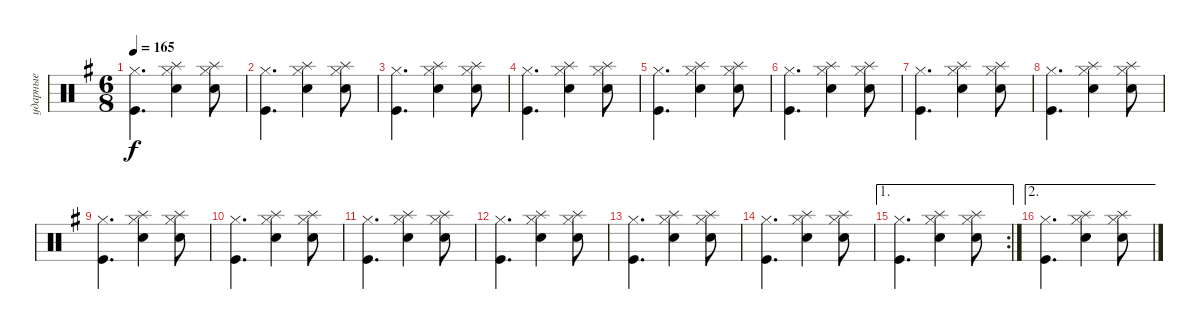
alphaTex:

\track ("ударные" "ударные") {instrument percussion}
\staff {score}
\articulation defaults
\ts (6 8)
\tempo 165
\clef neutral
\ks eminor
("Kick (hit)" "Hi-Hat (closed)").4{d dy f} ("Snare (hit) 2" "Hi-Hat (closed)" "Splash (hit)").4 ("Snare (hit) 2" "Hi-Hat (closed)" "Splash (hit)").8 |
("Kick (hit)" "Hi-Hat (closed)").4{d} ("Snare (hit) 2" "Hi-Hat (closed)" "Splash (hit)").4 ("Snare (hit) 2" "Hi-Hat (closed)" "Splash (hit)").8 |
("Kick (hit)" "Hi-Hat (closed)").4{d} ("Snare (hit) 2" "Hi-Hat (closed)" "Splash (hit)").4 ("Snare (hit) 2" "Hi-Hat (closed)" "Splash (hit)").8 |
("Kick (hit)" "Hi-Hat (closed)").4{d} ("Snare (hit) 2" "Hi-Hat (closed)" "Splash (hit)").4 ("Snare (hit) 2" "Hi-Hat (closed)" "Splash (hit)").8 |
("Kick (hit)" "Hi-Hat (closed)").4{d} ("Snare (hit) 2" "Hi-Hat (closed)" "Splash (hit)").4 ("Snare (hit) 2" "Hi-Hat (closed)" "Splash (hit)").8 |
("Kick (hit)" "Hi-Hat (closed)").4{d} ("Snare (hit) 2" "Hi-Hat (closed)" "Splash (hit)").4 ("Snare (hit) 2" "Hi-Hat (closed)" "Splash (hit)").8 |
("Kick (hit)" "Hi-Hat (closed)").4{d} ("Snare (hit) 2" "Hi-Hat (closed)" "Splash (hit)").4 ("Snare (hit) 2" "Hi-Hat (closed)" "Splash (hit)").8 |
("Kick (hit)" "Hi-Hat (closed)").4{d} ("Snare (hit) 2" "Hi-Hat (closed)" "Splash (hit)").4 ("Snare (hit) 2" "Hi-Hat (closed)" "Splash (hit)").8 |
("Kick (hit)" "Hi-Hat (closed)").4{d} ("Snare (hit) 2" "Hi-Hat (closed)" "Splash (hit)").4 ("Snare (hit) 2" "Hi-Hat (closed)" "Splash (hit)").8 |
("Kick (hit)" "Hi-Hat (closed)").4{d} ("Snare (hit) 2" "Hi-Hat (closed)" "Splash (hit)").4 ("Snare (hit) 2" "Hi-Hat (closed)" "Splash (hit)").8 |
("Kick (hit)" "Hi-Hat (closed)").4{d} ("Snare (hit) 2" "Hi-Hat (closed)" "Splash (hit)").4 ("Snare (hit) 2" "Hi-Hat (closed)" "Splash (hit)").8 |
("Kick (hit)" "Hi-Hat (closed)").4{d} ("Snare (hit) 2" "Hi-Hat (closed)" "Splash (hit)").4 ("Snare (hit) 2" "Hi-Hat (closed)" "Splash (hit)").8 |
("Kick (hit)" "Hi-Hat (closed)").4{d} ("Snare (hit) 2" "Hi-Hat (closed)" "Splash (hit)").4 ("Snare (hit) 2" "Hi-Hat (closed)" "Splash (hit)").8 |
("Kick (hit)" "Hi-Hat (closed)").4{d} ("Snare (hit) 2" "Hi-Hat (closed)" "Splash (hit)").4 ("Snare (hit) 2" "Hi-Hat (closed)" "Splash (hit)").8 |
\ae 1
\rc 2
("Kick (hit)" "Hi-Hat (closed)").4{d} ("Snare (hit) 2" "Hi-Hat (closed)" "Splash (hit)").4 ("Snare (hit) 2" "Hi-Hat (closed)" "Splash (hit)").8 |
\ae 2
("Kick (hit)" "Hi-Hat (closed)").4{d} ("Snare (hit) 2" "Hi-Hat (closed)" "Splash (hit)").4 ("Snare (hit) 2" "Hi-Hat (closed)" "Splash (hit)").8
